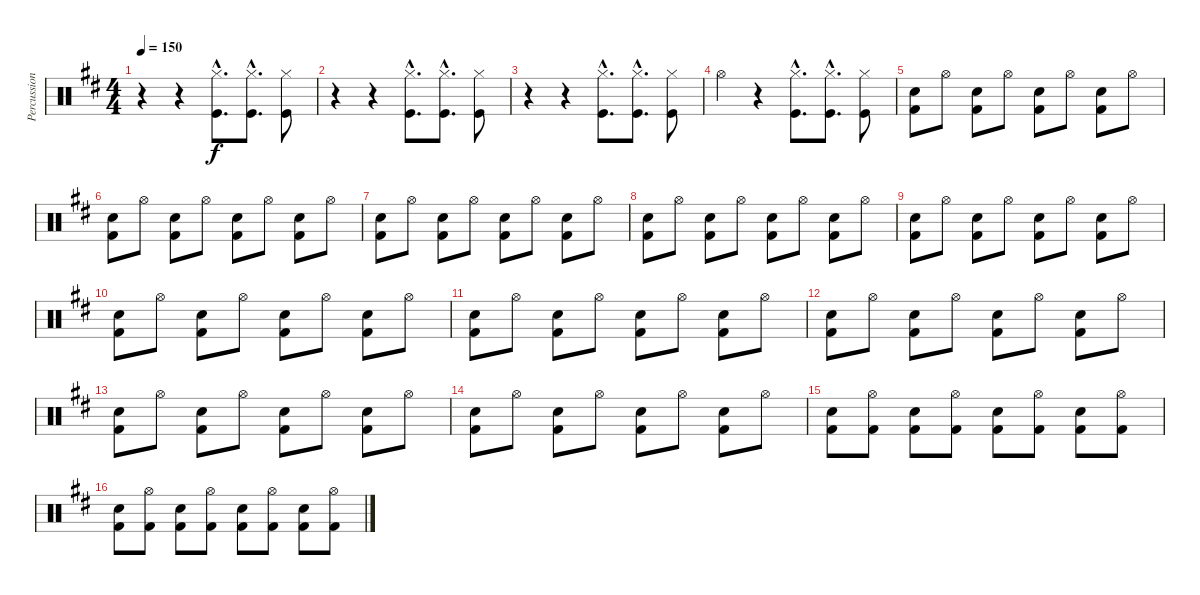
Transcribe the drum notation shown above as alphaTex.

\track ("Percussion" "Percussion") {instrument percussion}
\staff {score}
\articulation defaults
\ts (4 4)
\tempo 150
\clef neutral
\ks d
r.4{dy f} r.4 ("Hi-Hat (closed)"{hac} "Kick (hit)"{hac}).8{d} ("Hi-Hat (closed)"{hac} "Kick (hit)"{hac}).8{d} ("Hi-Hat (closed)" "Kick (hit)").8 |
r.4 r.4 ("Hi-Hat (closed)"{hac} "Kick (hit)"{hac}).8{d} ("Hi-Hat (closed)"{hac} "Kick (hit)"{hac}).8{d} ("Hi-Hat (closed)" "Kick (hit)").8 |
r.4 r.4 ("Hi-Hat (closed)"{hac} "Kick (hit)"{hac}).8{d} ("Hi-Hat (closed)"{hac} "Kick (hit)"{hac}).8{d} ("Hi-Hat (closed)" "Kick (hit)").8 |
"Hi-Hat (open)".4 r.4 ("Hi-Hat (closed)"{hac} "Kick (hit)"{hac}).8{d} ("Hi-Hat (closed)"{hac} "Kick (hit)"{hac}).8{d} ("Hi-Hat (closed)" "Kick (hit)").8 |
("Kick (hit) 2" "Snare (hit) 2").8 "Hi-Hat (open)".8 ("Kick (hit) 2" "Snare (hit) 2").8 "Hi-Hat (open)".8 ("Kick (hit) 2" "Snare (hit) 2").8 "Hi-Hat (open)".8 ("Kick (hit) 2" "Snare (hit) 2").8 "Hi-Hat (open)".8 |
("Kick (hit) 2" "Snare (hit) 2").8 "Hi-Hat (open)".8 ("Kick (hit) 2" "Snare (hit) 2").8 "Hi-Hat (open)".8 ("Kick (hit) 2" "Snare (hit) 2").8 "Hi-Hat (open)".8 ("Kick (hit) 2" "Snare (hit) 2").8 "Hi-Hat (open)".8 |
("Kick (hit) 2" "Snare (hit) 2").8 "Hi-Hat (open)".8 ("Kick (hit) 2" "Snare (hit) 2").8 "Hi-Hat (open)".8 ("Kick (hit) 2" "Snare (hit) 2").8 "Hi-Hat (open)".8 ("Kick (hit) 2" "Snare (hit) 2").8 "Hi-Hat (open)".8 |
("Kick (hit) 2" "Snare (hit) 2").8 "Hi-Hat (open)".8 ("Kick (hit) 2" "Snare (hit) 2").8 "Hi-Hat (open)".8 ("Kick (hit) 2" "Snare (hit) 2").8 "Hi-Hat (open)".8 ("Kick (hit) 2" "Snare (hit) 2").8 "Hi-Hat (open)".8 |
("Kick (hit) 2" "Snare (hit) 2").8 "Hi-Hat (open)".8 ("Kick (hit) 2" "Snare (hit) 2").8 "Hi-Hat (open)".8 ("Kick (hit) 2" "Snare (hit) 2").8 "Hi-Hat (open)".8 ("Kick (hit) 2" "Snare (hit) 2").8 "Hi-Hat (open)".8 |
("Kick (hit) 2" "Snare (hit) 2").8 "Hi-Hat (open)".8 ("Kick (hit) 2" "Snare (hit) 2").8 "Hi-Hat (open)".8 ("Kick (hit) 2" "Snare (hit) 2").8 "Hi-Hat (open)".8 ("Kick (hit) 2" "Snare (hit) 2").8 "Hi-Hat (open)".8 |
("Kick (hit) 2" "Snare (hit) 2").8 "Hi-Hat (open)".8 ("Kick (hit) 2" "Snare (hit) 2").8 "Hi-Hat (open)".8 ("Kick (hit) 2" "Snare (hit) 2").8 "Hi-Hat (open)".8 ("Kick (hit) 2" "Snare (hit) 2").8 "Hi-Hat (open)".8 |
("Kick (hit) 2" "Snare (hit) 2").8 "Hi-Hat (open)".8 ("Kick (hit) 2" "Snare (hit) 2").8 "Hi-Hat (open)".8 ("Kick (hit) 2" "Snare (hit) 2").8 "Hi-Hat (open)".8 ("Kick (hit) 2" "Snare (hit) 2").8 "Hi-Hat (open)".8 |
("Kick (hit) 2" "Snare (hit) 2").8 "Hi-Hat (open)".8 ("Kick (hit) 2" "Snare (hit) 2").8 "Hi-Hat (open)".8 ("Kick (hit) 2" "Snare (hit) 2").8 "Hi-Hat (open)".8 ("Kick (hit) 2" "Snare (hit) 2").8 "Hi-Hat (open)".8 |
("Kick (hit) 2" "Snare (hit) 2").8 "Hi-Hat (open)".8 ("Kick (hit) 2" "Snare (hit) 2").8 "Hi-Hat (open)".8 ("Kick (hit) 2" "Snare (hit) 2").8 "Hi-Hat (open)".8 ("Kick (hit) 2" "Snare (hit) 2").8 "Hi-Hat (open)".8 |
("Kick (hit) 2" "Snare (hit) 2").8 ("Kick (hit) 2" "Hi-Hat (open)").8 ("Kick (hit) 2" "Snare (hit) 2").8 ("Kick (hit) 2" "Hi-Hat (open)").8 ("Kick (hit) 2" "Snare (hit) 2").8 ("Kick (hit) 2" "Hi-Hat (open)").8 ("Kick (hit) 2" "Snare (hit) 2").8 ("Kick (hit) 2" "Hi-Hat (open)").8 |
("Kick (hit) 2" "Snare (hit) 2").8 ("Kick (hit) 2" "Hi-Hat (open)").8 ("Kick (hit) 2" "Snare (hit) 2").8 ("Kick (hit) 2" "Hi-Hat (open)").8 ("Kick (hit) 2" "Snare (hit) 2").8 ("Kick (hit) 2" "Hi-Hat (open)").8 ("Kick (hit) 2" "Snare (hit) 2").8 ("Kick (hit) 2" "Hi-Hat (open)").8
